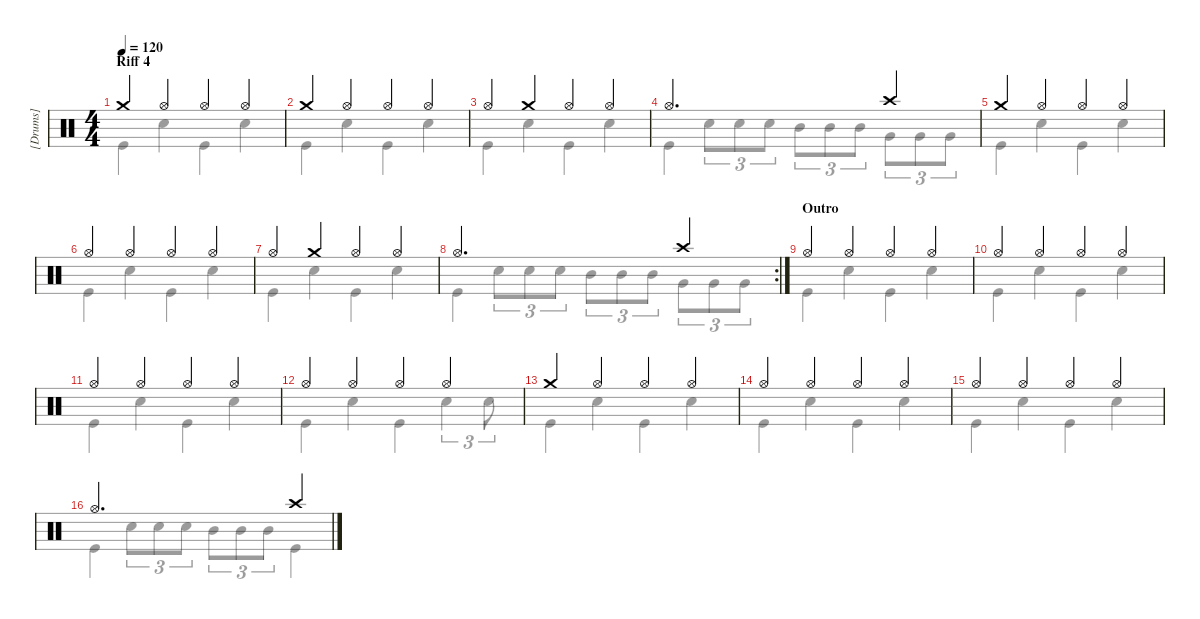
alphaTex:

\hideDynamics
\bracketExtendMode groupsimilarinstruments
\firstSystemTrackNameMode fullname
\otherSystemsTrackNameMode fullname
\otherSystemsTrackNameOrientation horizontal
\track ("[Drums]" "Drums") {instrument percussion}
\staff {score}
\articulation defaults
\voice
\ts (4 4)
\section ("" "Riff 4")
\tempo 120
\clef neutral
\scale
0.333333
\ks c "Crash medium (hit)".4{dy ff} "Hi-Hat (open)".4 "Hi-Hat (open)".4 "Hi-Hat (open)".4
|
\scale
0.333333 "Crash medium (hit)".4 "Hi-Hat (open)".4 "Hi-Hat (open)".4 "Hi-Hat (open)".4 |
\scale
0.333333 "Hi-Hat (open)".4 "Crash medium (hit)".4 "Hi-Hat (open)".4 "Hi-Hat (open)".4 |
\scale
0.333333 "Hi-Hat (open)".2{d} "Crash high (hit)".4 |
\scale
0.333333 "Crash medium (hit)".4 "Hi-Hat (open)".4 "Hi-Hat (open)".4 "Hi-Hat (open)".4 |
\scale
0.321429 "Hi-Hat (open)".4 "Hi-Hat (open)".4 "Hi-Hat (open)".4 "Hi-Hat (open)".4 |
\scale
0.321429 "Hi-Hat (open)".4 "Crash medium (hit)".4 "Hi-Hat (open)".4 "Hi-Hat (open)".4 |
\rc 2
\scale
0.357143 "Hi-Hat (open)".2{d} "Crash high (hit)".4 |
\section ("" "Outro")
\scale
0.333333 "Hi-Hat (open)".4 "Hi-Hat (open)".4 "Hi-Hat (open)".4 "Hi-Hat (open)".4 |
\scale
0.333333 "Hi-Hat (open)".4 "Hi-Hat (open)".4 "Hi-Hat (open)".4 "Hi-Hat (open)".4 |
\scale
0.333333 "Hi-Hat (open)".4 "Hi-Hat (open)".4 "Hi-Hat (open)".4 "Hi-Hat (open)".4 |
\scale
0.333333 "Hi-Hat (open)".4 "Hi-Hat (open)".4 "Hi-Hat (open)".4 "Hi-Hat (open)".4 |
\scale
0.333333 "Crash medium (hit)".4 "Hi-Hat (open)".4 "Hi-Hat (open)".4 "Hi-Hat (open)".4 |
\scale
0.333333 "Hi-Hat (open)".4 "Hi-Hat (open)".4 "Hi-Hat (open)".4 "Hi-Hat (open)".4 |
\scale
0.333333 "Hi-Hat (open)".4 "Hi-Hat (open)".4 "Hi-Hat (open)".4 "Hi-Hat (open)".4 |
\scale
0.333333 "Hi-Hat (open)".2{d} "Crash high (hit)".4
\voice
\clef neutral
\ottava regular
\simile none
\scale
0.333333
\ks c "Kick (hit)".4{dy f} "Snare (hit) 2".4 "Kick (hit)".4 "Snare (hit) 2".4
|
\scale
0.333333 "Kick (hit)".4 "Snare (hit) 2".4 "Kick (hit)".4 "Snare (hit) 2".4 |
\scale
0.333333 "Kick (hit)".4 "Snare (hit) 2".4 "Kick (hit)".4 "Snare (hit) 2".4 |
\scale
0.333333 "Kick (hit)".4 "Snare (hit) 2".8{tu (3 2)} "Snare (hit) 2".8{tu (3 2)} "Snare (hit) 2".8{tu (3 2)} "Mid Tom (hit)".8{tu (3 2)} "Mid Tom (hit)".8{tu (3 2)} "Mid Tom (hit)".8{tu (3 2)} "Very Low Tom (hit)".8{tu (3 2)} "Very Low Tom (hit)".8{tu (3 2)} "Very Low Tom (hit)".8{tu (3 2)} |
\scale
0.333333 "Kick (hit)".4 "Snare (hit) 2".4 "Kick (hit)".4 "Snare (hit) 2".4 |
\scale
0.321429 "Kick (hit)".4 "Snare (hit) 2".4 "Kick (hit)".4 "Snare (hit) 2".4 |
\scale
0.321429 "Kick (hit)".4 "Snare (hit) 2".4 "Kick (hit)".4 "Snare (hit) 2".4 |
\scale
0.357143 "Kick (hit)".4 "Snare (hit) 2".8{tu (3 2)} "Snare (hit) 2".8{tu (3 2)} "Snare (hit) 2".8{tu (3 2)} "Mid Tom (hit)".8{tu (3 2)} "Mid Tom (hit)".8{tu (3 2)} "Mid Tom (hit)".8{tu (3 2)} "Very Low Tom (hit)".8{tu (3 2)} "Very Low Tom (hit)".8{tu (3 2)} "Very Low Tom (hit)".8{tu (3 2)} |
\scale
0.333333 "Kick (hit)".4 "Snare (hit) 2".4 "Kick (hit)".4 "Snare (hit) 2".4 |
\scale
0.333333 "Kick (hit)".4 "Snare (hit) 2".4 "Kick (hit)".4 "Snare (hit) 2".4 |
\scale
0.333333 "Kick (hit)".4 "Snare (hit) 2".4 "Kick (hit)".4 "Snare (hit) 2".4 |
\scale
0.333333 "Kick (hit)".4 "Snare (hit) 2".4 "Kick (hit)".4 "Snare (hit) 2".4{tu (3 2)} "Snare (hit) 2".8{tu (3 2)} |
\scale
0.333333 "Kick (hit)".4 "Snare (hit) 2".4 "Kick (hit)".4 "Snare (hit) 2".4 |
\scale
0.333333 "Kick (hit)".4 "Snare (hit) 2".4 "Kick (hit)".4 "Snare (hit) 2".4 |
\scale
0.333333 "Kick (hit)".4 "Snare (hit) 2".4 "Kick (hit)".4 "Snare (hit) 2".4 |
\scale
0.333333 "Kick (hit)".4 "Snare (hit) 2".8{tu (3 2)} "Snare (hit) 2".8{tu (3 2)} "Snare (hit) 2".8{tu (3 2)} "Mid Tom (hit)".8{tu (3 2)} "Mid Tom (hit)".8{tu (3 2)} "Mid Tom (hit)".8{tu (3 2)} "Kick (hit)".4
